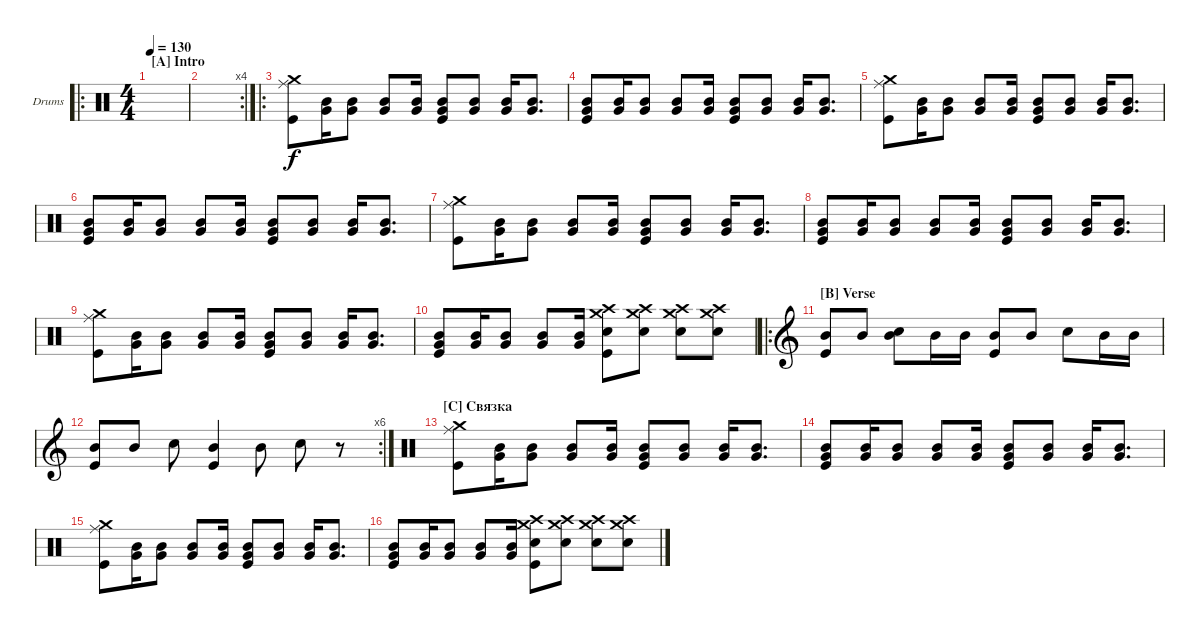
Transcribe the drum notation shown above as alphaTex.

\defaultSystemsLayout 4
\bracketExtendMode groupsimilarinstruments
\firstSystemTrackNameOrientation horizontal
\otherSystemsTrackNameOrientation horizontal
\track ("Drumkit" "Drums") {instrument percussion}
\staff {score}
\articulation defaults
\ro
\ts (4 4)
\section ("A" "Intro")
\tempo 130
\clef neutral
\ks c
|
\rc 4
|
\ro
("Crash medium (hit)" "Ride (middle)" "Kick (hit)").8 ("Very Low Tom (hit)" "Mid Tom (hit)").16 ("Very Low Tom (hit)" "Mid Tom (hit)").8 ("Very Low Tom (hit)" "Mid Tom (hit)").8 ("Very Low Tom (hit)" "Mid Tom (hit)").16 ("Very Low Tom (hit)" "Mid Tom (hit)" "Kick (hit)").8 ("Very Low Tom (hit)" "Mid Tom (hit)").8 ("Very Low Tom (hit)" "Mid Tom (hit)").16 ("Very Low Tom (hit)" "Mid Tom (hit)").8{d} |
("Very Low Tom (hit)" "Mid Tom (hit)" "Kick (hit)").8 ("Very Low Tom (hit)" "Mid Tom (hit)").16 ("Very Low Tom (hit)" "Mid Tom (hit)").8 ("Very Low Tom (hit)" "Mid Tom (hit)").8 ("Very Low Tom (hit)" "Mid Tom (hit)").16 ("Very Low Tom (hit)" "Mid Tom (hit)" "Kick (hit)").8 ("Very Low Tom (hit)" "Mid Tom (hit)").8 ("Very Low Tom (hit)" "Mid Tom (hit)").16 ("Very Low Tom (hit)" "Mid Tom (hit)").8{d} |
("Crash medium (hit)" "Ride (middle)" "Kick (hit)").8 ("Very Low Tom (hit)" "Mid Tom (hit)").16 ("Very Low Tom (hit)" "Mid Tom (hit)").8 ("Very Low Tom (hit)" "Mid Tom (hit)").8 ("Very Low Tom (hit)" "Mid Tom (hit)").16 ("Very Low Tom (hit)" "Mid Tom (hit)" "Kick (hit)").8 ("Very Low Tom (hit)" "Mid Tom (hit)").8 ("Very Low Tom (hit)" "Mid Tom (hit)").16 ("Very Low Tom (hit)" "Mid Tom (hit)").8{d} |
("Very Low Tom (hit)" "Mid Tom (hit)" "Kick (hit)").8 ("Very Low Tom (hit)" "Mid Tom (hit)").16 ("Very Low Tom (hit)" "Mid Tom (hit)").8 ("Very Low Tom (hit)" "Mid Tom (hit)").8 ("Very Low Tom (hit)" "Mid Tom (hit)").16 ("Very Low Tom (hit)" "Mid Tom (hit)" "Kick (hit)").8 ("Very Low Tom (hit)" "Mid Tom (hit)").8 ("Very Low Tom (hit)" "Mid Tom (hit)").16 ("Very Low Tom (hit)" "Mid Tom (hit)").8{d} |
("Crash medium (hit)" "Ride (middle)" "Kick (hit)").8 ("Very Low Tom (hit)" "Mid Tom (hit)").16 ("Very Low Tom (hit)" "Mid Tom (hit)").8 ("Very Low Tom (hit)" "Mid Tom (hit)").8 ("Very Low Tom (hit)" "Mid Tom (hit)").16 ("Very Low Tom (hit)" "Mid Tom (hit)" "Kick (hit)").8 ("Very Low Tom (hit)" "Mid Tom (hit)").8 ("Very Low Tom (hit)" "Mid Tom (hit)").16 ("Very Low Tom (hit)" "Mid Tom (hit)").8{d} |
("Very Low Tom (hit)" "Mid Tom (hit)" "Kick (hit)").8 ("Very Low Tom (hit)" "Mid Tom (hit)").16 ("Very Low Tom (hit)" "Mid Tom (hit)").8 ("Very Low Tom (hit)" "Mid Tom (hit)").8 ("Very Low Tom (hit)" "Mid Tom (hit)").16 ("Very Low Tom (hit)" "Mid Tom (hit)" "Kick (hit)").8 ("Very Low Tom (hit)" "Mid Tom (hit)").8 ("Very Low Tom (hit)" "Mid Tom (hit)").16 ("Very Low Tom (hit)" "Mid Tom (hit)").8{d} |
("Crash medium (hit)" "Ride (middle)" "Kick (hit)").8 ("Very Low Tom (hit)" "Mid Tom (hit)").16 ("Very Low Tom (hit)" "Mid Tom (hit)").8 ("Very Low Tom (hit)" "Mid Tom (hit)").8 ("Very Low Tom (hit)" "Mid Tom (hit)").16 ("Very Low Tom (hit)" "Mid Tom (hit)" "Kick (hit)").8 ("Very Low Tom (hit)" "Mid Tom (hit)").8 ("Very Low Tom (hit)" "Mid Tom (hit)").16 ("Very Low Tom (hit)" "Mid Tom (hit)").8{d} |
("Very Low Tom (hit)" "Mid Tom (hit)" "Kick (hit)").8 ("Very Low Tom (hit)" "Mid Tom (hit)").16 ("Very Low Tom (hit)" "Mid Tom (hit)").8 ("Very Low Tom (hit)" "Mid Tom (hit)").8 ("Very Low Tom (hit)" "Mid Tom (hit)").16 ("Crash medium (hit)" "Crash high (hit)" "Snare (hit) 2" "Kick (hit)").8 ("Crash medium (hit)" "Crash high (hit)" "Snare (hit) 2").8 ("Crash medium (hit)" "Crash high (hit)" "Snare (hit) 2").8 ("Crash medium (hit)" "Crash high (hit)" "Snare (hit) 2").8 |
\ro
\section ("B" "Verse")
\clef g2
("Mid Tom (hit)" "Kick (hit)").8 "Mid Tom (hit)".8 ("Mid Tom (hit)" "Snare (hit) 2").8 "Mid Tom (hit)".16 "Mid Tom (hit)".16 ("Mid Tom (hit)" "Kick (hit)").8 "Mid Tom (hit)".8 "Snare (hit) 2".8 "Mid Tom (hit)".16 "Mid Tom (hit)".16 |
\rc 6
("Mid Tom (hit)" "Kick (hit)").8 "Mid Tom (hit)".8 "Snare (hit) 2".8 ("Mid Tom (hit)" "Kick (hit)").4 "Mid Tom (hit)".8 "Snare (hit) 2".8 r.8 |
\section ("C" "Связка")
\clef neutral
("Crash medium (hit)" "Ride (middle)" "Kick (hit)").8 ("Very Low Tom (hit)" "Mid Tom (hit)").16 ("Very Low Tom (hit)" "Mid Tom (hit)").8 ("Very Low Tom (hit)" "Mid Tom (hit)").8 ("Very Low Tom (hit)" "Mid Tom (hit)").16 ("Very Low Tom (hit)" "Mid Tom (hit)" "Kick (hit)").8 ("Very Low Tom (hit)" "Mid Tom (hit)").8 ("Very Low Tom (hit)" "Mid Tom (hit)").16 ("Very Low Tom (hit)" "Mid Tom (hit)").8{d} |
("Very Low Tom (hit)" "Mid Tom (hit)" "Kick (hit)").8 ("Very Low Tom (hit)" "Mid Tom (hit)").16 ("Very Low Tom (hit)" "Mid Tom (hit)").8 ("Very Low Tom (hit)" "Mid Tom (hit)").8 ("Very Low Tom (hit)" "Mid Tom (hit)").16 ("Very Low Tom (hit)" "Mid Tom (hit)" "Kick (hit)").8 ("Very Low Tom (hit)" "Mid Tom (hit)").8 ("Very Low Tom (hit)" "Mid Tom (hit)").16 ("Very Low Tom (hit)" "Mid Tom (hit)").8{d} |
("Crash medium (hit)" "Ride (middle)" "Kick (hit)").8 ("Very Low Tom (hit)" "Mid Tom (hit)").16 ("Very Low Tom (hit)" "Mid Tom (hit)").8 ("Very Low Tom (hit)" "Mid Tom (hit)").8 ("Very Low Tom (hit)" "Mid Tom (hit)").16 ("Very Low Tom (hit)" "Mid Tom (hit)" "Kick (hit)").8 ("Very Low Tom (hit)" "Mid Tom (hit)").8 ("Very Low Tom (hit)" "Mid Tom (hit)").16 ("Very Low Tom (hit)" "Mid Tom (hit)").8{d} |
("Very Low Tom (hit)" "Mid Tom (hit)" "Kick (hit)").8 ("Very Low Tom (hit)" "Mid Tom (hit)").16 ("Very Low Tom (hit)" "Mid Tom (hit)").8 ("Very Low Tom (hit)" "Mid Tom (hit)").8 ("Very Low Tom (hit)" "Mid Tom (hit)").16 ("Crash medium (hit)" "Crash high (hit)" "Snare (hit) 2" "Kick (hit)").8 ("Crash medium (hit)" "Crash high (hit)" "Snare (hit) 2").8 ("Crash medium (hit)" "Crash high (hit)" "Snare (hit) 2").8 ("Crash medium (hit)" "Crash high (hit)" "Snare (hit) 2").8
